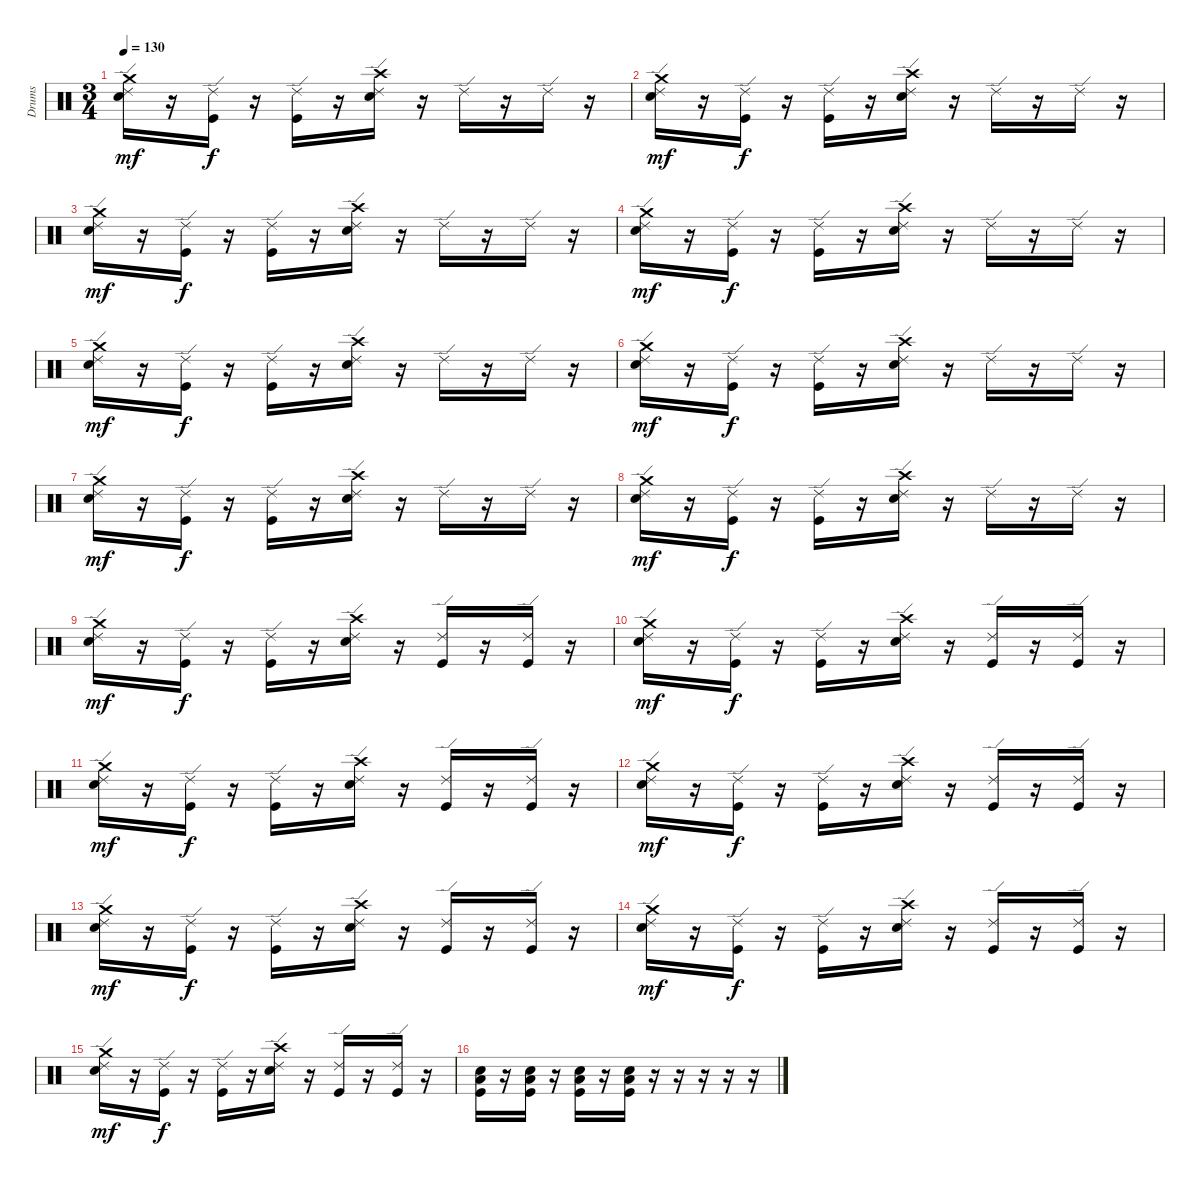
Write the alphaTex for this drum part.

\track ("Drums" "Drums") {instrument percussion}
\staff {score}
\articulation defaults
\ts (3 4)
\tempo 130
\clef neutral
\ks c
("Crash medium (hit)" "Ride (edge) 2" "Electric Snare (hit)").16{dy mf} r.16 ("Ride (edge) 2" "Kick (hit)").16{dy f} r.16 ("Ride (edge) 2" "Kick (hit)").16 r.16 ("Crash high (hit)" "Ride (edge) 2" "Electric Snare (hit)").16 r.16 "Ride (edge) 2".16 r.16 "Ride (edge) 2".16 r.16 |
("Crash medium (hit)" "Ride (edge) 2" "Electric Snare (hit)").16{dy mf} r.16 ("Ride (edge) 2" "Kick (hit)").16{dy f} r.16 ("Ride (edge) 2" "Kick (hit)").16 r.16 ("Crash high (hit)" "Ride (edge) 2" "Electric Snare (hit)").16 r.16 "Ride (edge) 2".16 r.16 "Ride (edge) 2".16 r.16 |
("Crash medium (hit)" "Ride (edge) 2" "Electric Snare (hit)").16{dy mf} r.16 ("Ride (edge) 2" "Kick (hit)").16{dy f} r.16 ("Ride (edge) 2" "Kick (hit)").16 r.16 ("Crash high (hit)" "Ride (edge) 2" "Electric Snare (hit)").16 r.16 "Ride (edge) 2".16 r.16 "Ride (edge) 2".16 r.16 |
("Crash medium (hit)" "Ride (edge) 2" "Electric Snare (hit)").16{dy mf} r.16 ("Ride (edge) 2" "Kick (hit)").16{dy f} r.16 ("Ride (edge) 2" "Kick (hit)").16 r.16 ("Crash high (hit)" "Ride (edge) 2" "Electric Snare (hit)").16 r.16 "Ride (edge) 2".16 r.16 "Ride (edge) 2".16 r.16 |
("Crash medium (hit)" "Ride (edge) 2" "Electric Snare (hit)").16{dy mf} r.16 ("Ride (edge) 2" "Kick (hit)").16{dy f} r.16 ("Ride (edge) 2" "Kick (hit)").16 r.16 ("Crash high (hit)" "Ride (edge) 2" "Electric Snare (hit)").16 r.16 "Ride (edge) 2".16 r.16 "Ride (edge) 2".16 r.16 |
("Crash medium (hit)" "Ride (edge) 2" "Electric Snare (hit)").16{dy mf} r.16 ("Ride (edge) 2" "Kick (hit)").16{dy f} r.16 ("Ride (edge) 2" "Kick (hit)").16 r.16 ("Crash high (hit)" "Ride (edge) 2" "Electric Snare (hit)").16 r.16 "Ride (edge) 2".16 r.16 "Ride (edge) 2".16 r.16 |
("Crash medium (hit)" "Ride (edge) 2" "Electric Snare (hit)").16{dy mf} r.16 ("Ride (edge) 2" "Kick (hit)").16{dy f} r.16 ("Ride (edge) 2" "Kick (hit)").16 r.16 ("Crash high (hit)" "Ride (edge) 2" "Electric Snare (hit)").16 r.16 "Ride (edge) 2".16 r.16 "Ride (edge) 2".16 r.16 |
("Crash medium (hit)" "Ride (edge) 2" "Electric Snare (hit)").16{dy mf} r.16 ("Ride (edge) 2" "Kick (hit)").16{dy f} r.16 ("Ride (edge) 2" "Kick (hit)").16 r.16 ("Crash high (hit)" "Ride (edge) 2" "Electric Snare (hit)").16 r.16 "Ride (edge) 2".16 r.16 "Ride (edge) 2".16 r.16 |
("Crash medium (hit)" "Ride (edge) 2" "Electric Snare (hit)").16{dy mf} r.16 ("Ride (edge) 2" "Kick (hit)").16{dy f} r.16 ("Ride (edge) 2" "Kick (hit)").16 r.16 ("Crash high (hit)" "Ride (edge) 2" "Electric Snare (hit)").16 r.16 ("Ride (edge) 2" "Kick (hit)").16 r.16 ("Ride (edge) 2" "Kick (hit)").16 r.16 |
("Crash medium (hit)" "Ride (edge) 2" "Electric Snare (hit)").16{dy mf} r.16 ("Ride (edge) 2" "Kick (hit)").16{dy f} r.16 ("Ride (edge) 2" "Kick (hit)").16 r.16 ("Crash high (hit)" "Ride (edge) 2" "Electric Snare (hit)").16 r.16 ("Ride (edge) 2" "Kick (hit)").16 r.16 ("Ride (edge) 2" "Kick (hit)").16 r.16 |
("Crash medium (hit)" "Ride (edge) 2" "Electric Snare (hit)").16{dy mf} r.16 ("Ride (edge) 2" "Kick (hit)").16{dy f} r.16 ("Ride (edge) 2" "Kick (hit)").16 r.16 ("Crash high (hit)" "Ride (edge) 2" "Electric Snare (hit)").16 r.16 ("Ride (edge) 2" "Kick (hit)").16 r.16 ("Ride (edge) 2" "Kick (hit)").16 r.16 |
("Crash medium (hit)" "Ride (edge) 2" "Electric Snare (hit)").16{dy mf} r.16 ("Ride (edge) 2" "Kick (hit)").16{dy f} r.16 ("Ride (edge) 2" "Kick (hit)").16 r.16 ("Crash high (hit)" "Ride (edge) 2" "Electric Snare (hit)").16 r.16 ("Ride (edge) 2" "Kick (hit)").16 r.16 ("Ride (edge) 2" "Kick (hit)").16 r.16 |
("Crash medium (hit)" "Ride (edge) 2" "Electric Snare (hit)").16{dy mf} r.16 ("Ride (edge) 2" "Kick (hit)").16{dy f} r.16 ("Ride (edge) 2" "Kick (hit)").16 r.16 ("Crash high (hit)" "Ride (edge) 2" "Electric Snare (hit)").16 r.16 ("Ride (edge) 2" "Kick (hit)").16 r.16 ("Ride (edge) 2" "Kick (hit)").16 r.16 |
("Crash medium (hit)" "Ride (edge) 2" "Electric Snare (hit)").16{dy mf} r.16 ("Ride (edge) 2" "Kick (hit)").16{dy f} r.16 ("Ride (edge) 2" "Kick (hit)").16 r.16 ("Crash high (hit)" "Ride (edge) 2" "Electric Snare (hit)").16 r.16 ("Ride (edge) 2" "Kick (hit)").16 r.16 ("Ride (edge) 2" "Kick (hit)").16 r.16 |
("Crash medium (hit)" "Ride (edge) 2" "Electric Snare (hit)").16{dy mf} r.16 ("Ride (edge) 2" "Kick (hit)").16{dy f} r.16 ("Ride (edge) 2" "Kick (hit)").16 r.16 ("Crash high (hit)" "Ride (edge) 2" "Electric Snare (hit)").16 r.16 ("Ride (edge) 2" "Kick (hit)").16 r.16 ("Ride (edge) 2" "Kick (hit)").16 r.16 |
("Electric Snare (hit)" "Low Floor Tom (hit)" "Kick (hit)").16 r.16 ("Electric Snare (hit)" "Low Floor Tom (hit)" "Kick (hit)").16 r.16 ("Electric Snare (hit)" "Low Floor Tom (hit)" "Kick (hit)").16 r.16 ("Electric Snare (hit)" "Low Floor Tom (hit)" "Kick (hit)").16 r.16 r.16 r.16 r.16 r.16
